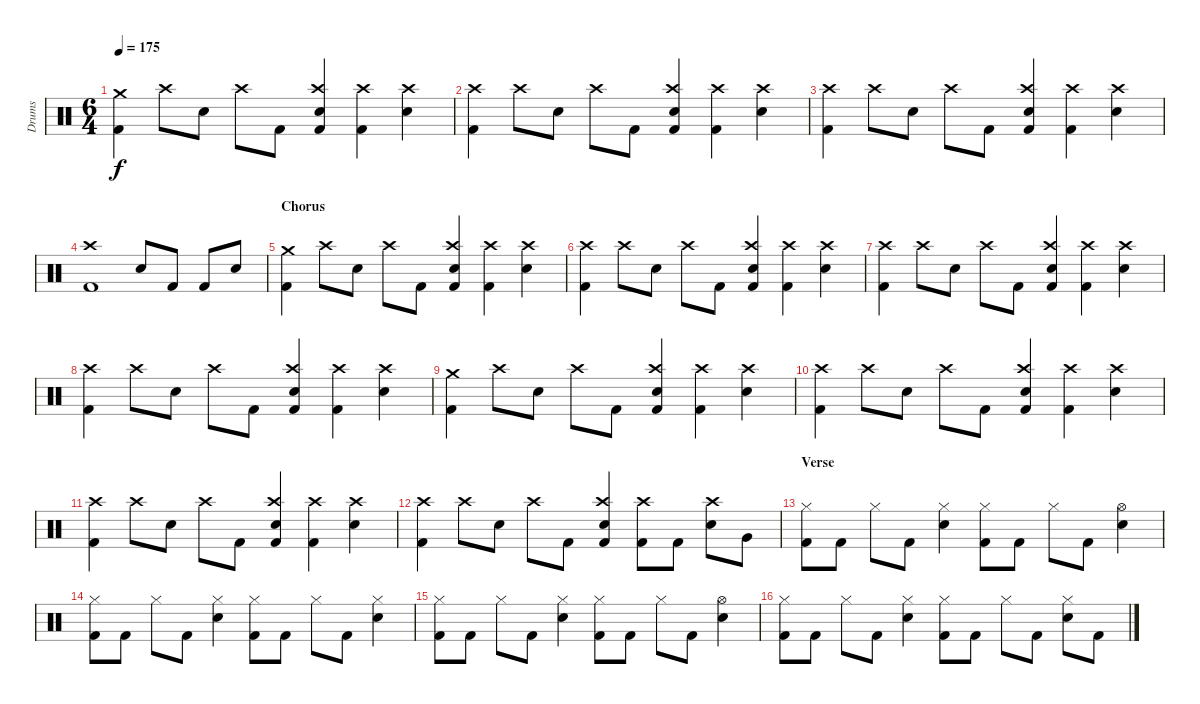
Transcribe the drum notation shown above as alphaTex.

\track ("Drums" "Drums") {instrument percussion}
\staff {score}
\articulation defaults
\ts (6 4)
\tempo 175
\clef neutral
\ks c
("Crash medium (hit)" "Kick (hit) 2").4{dy f} "Crash high (hit)".8 "Electric Snare (hit)".8 "Crash high (hit)".8 "Kick (hit) 2".8 ("Crash high (hit)" "Electric Snare (hit)" "Kick (hit) 2").4 ("Crash high (hit)" "Kick (hit) 2").4 ("Crash high (hit)" "Electric Snare (hit)").4 |
("Crash high (hit)" "Kick (hit) 2").4 "Crash high (hit)".8 "Electric Snare (hit)".8 "Crash high (hit)".8 "Kick (hit) 2".8 ("Crash high (hit)" "Electric Snare (hit)" "Kick (hit) 2").4 ("Crash high (hit)" "Kick (hit) 2").4 ("Crash high (hit)" "Electric Snare (hit)").4 |
("Crash high (hit)" "Kick (hit) 2").4 "Crash high (hit)".8 "Electric Snare (hit)".8 "Crash high (hit)".8 "Kick (hit) 2".8 ("Crash high (hit)" "Electric Snare (hit)" "Kick (hit) 2").4 ("Crash high (hit)" "Kick (hit) 2").4 ("Crash high (hit)" "Electric Snare (hit)").4 |
("Crash high (hit)" "Kick (hit) 2").1 "Electric Snare (hit)".8 "Kick (hit) 2".8 "Kick (hit) 2".8 "Electric Snare (hit)".8 |
\section ("" "Chorus")
("Crash medium (hit)" "Kick (hit) 2").4 "Crash high (hit)".8 "Electric Snare (hit)".8 "Crash high (hit)".8 "Kick (hit) 2".8 ("Crash high (hit)" "Electric Snare (hit)" "Kick (hit) 2").4 ("Crash high (hit)" "Kick (hit) 2").4 ("Crash high (hit)" "Electric Snare (hit)").4 |
("Crash high (hit)" "Kick (hit) 2").4 "Crash high (hit)".8 "Electric Snare (hit)".8 "Crash high (hit)".8 "Kick (hit) 2".8 ("Crash high (hit)" "Electric Snare (hit)" "Kick (hit) 2").4 ("Crash high (hit)" "Kick (hit) 2").4 ("Crash high (hit)" "Electric Snare (hit)").4 |
("Crash high (hit)" "Kick (hit) 2").4 "Crash high (hit)".8 "Electric Snare (hit)".8 "Crash high (hit)".8 "Kick (hit) 2".8 ("Crash high (hit)" "Electric Snare (hit)" "Kick (hit) 2").4 ("Crash high (hit)" "Kick (hit) 2").4 ("Crash high (hit)" "Electric Snare (hit)").4 |
("Crash high (hit)" "Kick (hit) 2").4 "Crash high (hit)".8 "Electric Snare (hit)".8 "Crash high (hit)".8 "Kick (hit) 2".8 ("Crash high (hit)" "Electric Snare (hit)" "Kick (hit) 2").4 ("Crash high (hit)" "Kick (hit) 2").4 ("Crash high (hit)" "Electric Snare (hit)").4 |
("Crash medium (hit)" "Kick (hit) 2").4 "Crash high (hit)".8 "Electric Snare (hit)".8 "Crash high (hit)".8 "Kick (hit) 2".8 ("Crash high (hit)" "Electric Snare (hit)" "Kick (hit) 2").4 ("Crash high (hit)" "Kick (hit) 2").4 ("Crash high (hit)" "Electric Snare (hit)").4 |
("Crash high (hit)" "Kick (hit) 2").4 "Crash high (hit)".8 "Electric Snare (hit)".8 "Crash high (hit)".8 "Kick (hit) 2".8 ("Crash high (hit)" "Electric Snare (hit)" "Kick (hit) 2").4 ("Crash high (hit)" "Kick (hit) 2").4 ("Crash high (hit)" "Electric Snare (hit)").4 |
("Crash high (hit)" "Kick (hit) 2").4 "Crash high (hit)".8 "Electric Snare (hit)".8 "Crash high (hit)".8 "Kick (hit) 2".8 ("Crash high (hit)" "Electric Snare (hit)" "Kick (hit) 2").4 ("Crash high (hit)" "Kick (hit) 2").4 ("Crash high (hit)" "Electric Snare (hit)").4 |
("Crash high (hit)" "Kick (hit) 2").4 "Crash high (hit)".8 "Electric Snare (hit)".8 "Crash high (hit)".8 "Kick (hit) 2".8 ("Crash high (hit)" "Electric Snare (hit)" "Kick (hit) 2").4 ("Crash high (hit)" "Kick (hit) 2").8 "Kick (hit) 2".8 ("Crash high (hit)" "Electric Snare (hit)").8 "Very Low Tom (hit)".8 |
\section ("" "Verse")
("Hi-Hat (closed)" "Kick (hit) 2").8 "Kick (hit) 2".8 "Hi-Hat (closed)".8 "Kick (hit) 2".8 ("Hi-Hat (closed)" "Electric Snare (hit)").4 ("Hi-Hat (closed)" "Kick (hit) 2").8 "Kick (hit) 2".8 "Hi-Hat (closed)".8 "Kick (hit) 2".8 ("Hi-Hat (open)" "Electric Snare (hit)").4 |
("Hi-Hat (closed)" "Kick (hit) 2").8 "Kick (hit) 2".8 "Hi-Hat (closed)".8 "Kick (hit) 2".8 ("Hi-Hat (closed)" "Electric Snare (hit)").4 ("Hi-Hat (closed)" "Kick (hit) 2").8 "Kick (hit) 2".8 "Hi-Hat (closed)".8 "Kick (hit) 2".8 ("Hi-Hat (closed)" "Electric Snare (hit)").4 |
("Hi-Hat (closed)" "Kick (hit) 2").8 "Kick (hit) 2".8 "Hi-Hat (closed)".8 "Kick (hit) 2".8 ("Hi-Hat (closed)" "Electric Snare (hit)").4 ("Hi-Hat (closed)" "Kick (hit) 2").8 "Kick (hit) 2".8 "Hi-Hat (closed)".8 "Kick (hit) 2".8 ("Hi-Hat (open)" "Electric Snare (hit)").4 |
("Hi-Hat (closed)" "Kick (hit) 2").8 "Kick (hit) 2".8 "Hi-Hat (closed)".8 "Kick (hit) 2".8 ("Hi-Hat (closed)" "Electric Snare (hit)").4 ("Hi-Hat (closed)" "Kick (hit) 2").8 "Kick (hit) 2".8 "Hi-Hat (closed)".8 "Kick (hit) 2".8 ("Hi-Hat (closed)" "Electric Snare (hit)").8 "Kick (hit) 2".8
